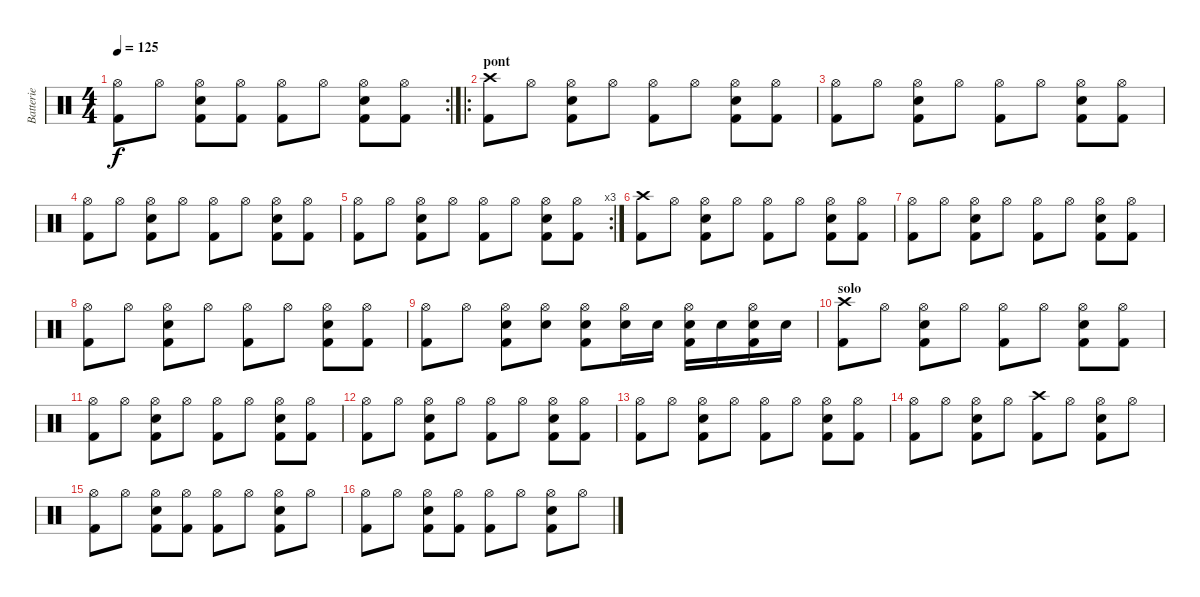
\track ("Batterie" "Batterie") {instrument percussion}
\staff {score}
\articulation defaults
\rc 2
\ts (4 4)
\tempo 125
\clef neutral
\ks c
("Hi-Hat (open)" "Kick (hit) 2").8{dy f} "Hi-Hat (open)".8 ("Hi-Hat (open)" "Kick (hit) 2" "Electric Snare (hit)").8 ("Hi-Hat (open)" "Kick (hit) 2").8 ("Hi-Hat (open)" "Kick (hit) 2").8 "Hi-Hat (open)".8 ("Hi-Hat (open)" "Kick (hit) 2" "Electric Snare (hit)").8 ("Hi-Hat (open)" "Kick (hit) 2").8 |
\ro
\section ("" "pont")
("Kick (hit) 2" "Crash high (hit)").8 "Hi-Hat (open)".8 ("Hi-Hat (open)" "Kick (hit) 2" "Electric Snare (hit)").8 "Hi-Hat (open)".8 ("Hi-Hat (open)" "Kick (hit) 2").8 "Hi-Hat (open)".8 ("Hi-Hat (open)" "Kick (hit) 2" "Electric Snare (hit)").8 ("Hi-Hat (open)" "Kick (hit) 2").8 |
("Hi-Hat (open)" "Kick (hit) 2").8 "Hi-Hat (open)".8 ("Hi-Hat (open)" "Kick (hit) 2" "Electric Snare (hit)").8 "Hi-Hat (open)".8 ("Hi-Hat (open)" "Kick (hit) 2").8 "Hi-Hat (open)".8 ("Hi-Hat (open)" "Kick (hit) 2" "Electric Snare (hit)").8 ("Hi-Hat (open)" "Kick (hit) 2").8 |
("Hi-Hat (open)" "Kick (hit) 2").8 "Hi-Hat (open)".8 ("Hi-Hat (open)" "Kick (hit) 2" "Electric Snare (hit)").8 "Hi-Hat (open)".8 ("Hi-Hat (open)" "Kick (hit) 2").8 "Hi-Hat (open)".8 ("Hi-Hat (open)" "Kick (hit) 2" "Electric Snare (hit)").8 ("Hi-Hat (open)" "Kick (hit) 2").8 |
\rc 3
("Hi-Hat (open)" "Kick (hit) 2").8 "Hi-Hat (open)".8 ("Hi-Hat (open)" "Kick (hit) 2" "Electric Snare (hit)").8 "Hi-Hat (open)".8 ("Hi-Hat (open)" "Kick (hit) 2").8 "Hi-Hat (open)".8 ("Hi-Hat (open)" "Kick (hit) 2" "Electric Snare (hit)").8 ("Hi-Hat (open)" "Kick (hit) 2").8 |
("Kick (hit) 2" "Crash high (hit)").8 "Hi-Hat (open)".8 ("Hi-Hat (open)" "Kick (hit) 2" "Electric Snare (hit)").8 "Hi-Hat (open)".8 ("Hi-Hat (open)" "Kick (hit) 2").8 "Hi-Hat (open)".8 ("Hi-Hat (open)" "Kick (hit) 2" "Electric Snare (hit)").8 ("Hi-Hat (open)" "Kick (hit) 2").8 |
("Hi-Hat (open)" "Kick (hit) 2").8 "Hi-Hat (open)".8 ("Hi-Hat (open)" "Kick (hit) 2" "Electric Snare (hit)").8 "Hi-Hat (open)".8 ("Hi-Hat (open)" "Kick (hit) 2").8 "Hi-Hat (open)".8 ("Hi-Hat (open)" "Kick (hit) 2" "Electric Snare (hit)").8 ("Hi-Hat (open)" "Kick (hit) 2").8 |
("Hi-Hat (open)" "Kick (hit) 2").8 "Hi-Hat (open)".8 ("Hi-Hat (open)" "Kick (hit) 2" "Electric Snare (hit)").8 "Hi-Hat (open)".8 ("Hi-Hat (open)" "Kick (hit) 2").8 "Hi-Hat (open)".8 ("Hi-Hat (open)" "Kick (hit) 2" "Electric Snare (hit)").8 ("Hi-Hat (open)" "Kick (hit) 2").8 |
("Hi-Hat (open)" "Kick (hit) 2").8 "Hi-Hat (open)".8 ("Hi-Hat (open)" "Kick (hit) 2" "Electric Snare (hit)").8 ("Hi-Hat (open)" "Electric Snare (hit)").8 ("Hi-Hat (open)" "Kick (hit) 2" "Electric Snare (hit)").8 ("Hi-Hat (open)" "Electric Snare (hit)").16 "Electric Snare (hit)".16 ("Hi-Hat (open)" "Kick (hit) 2" "Electric Snare (hit)").16 "Electric Snare (hit)".16 ("Hi-Hat (open)" "Kick (hit) 2" "Electric Snare (hit)").16 "Electric Snare (hit)".16 |
\section ("" "solo")
("Kick (hit) 2" "Crash high (hit)").8 "Hi-Hat (open)".8 ("Hi-Hat (open)" "Kick (hit) 2" "Electric Snare (hit)").8 "Hi-Hat (open)".8 ("Hi-Hat (open)" "Kick (hit) 2").8 "Hi-Hat (open)".8 ("Hi-Hat (open)" "Kick (hit) 2" "Electric Snare (hit)").8 ("Hi-Hat (open)" "Kick (hit) 2").8 |
("Hi-Hat (open)" "Kick (hit) 2").8 "Hi-Hat (open)".8 ("Hi-Hat (open)" "Kick (hit) 2" "Electric Snare (hit)").8 "Hi-Hat (open)".8 ("Hi-Hat (open)" "Kick (hit) 2").8 "Hi-Hat (open)".8 ("Hi-Hat (open)" "Kick (hit) 2" "Electric Snare (hit)").8 ("Hi-Hat (open)" "Kick (hit) 2").8 |
("Hi-Hat (open)" "Kick (hit) 2").8 "Hi-Hat (open)".8 ("Hi-Hat (open)" "Kick (hit) 2" "Electric Snare (hit)").8 "Hi-Hat (open)".8 ("Hi-Hat (open)" "Kick (hit) 2").8 "Hi-Hat (open)".8 ("Hi-Hat (open)" "Kick (hit) 2" "Electric Snare (hit)").8 ("Hi-Hat (open)" "Kick (hit) 2").8 |
("Hi-Hat (open)" "Kick (hit) 2").8 "Hi-Hat (open)".8 ("Hi-Hat (open)" "Kick (hit) 2" "Electric Snare (hit)").8 "Hi-Hat (open)".8 ("Hi-Hat (open)" "Kick (hit) 2").8 "Hi-Hat (open)".8 ("Hi-Hat (open)" "Kick (hit) 2" "Electric Snare (hit)").8 ("Hi-Hat (open)" "Kick (hit) 2").8 |
("Hi-Hat (open)" "Kick (hit) 2").8 "Hi-Hat (open)".8 ("Hi-Hat (open)" "Kick (hit) 2" "Electric Snare (hit)").8 "Hi-Hat (open)".8 ("Kick (hit) 2" "Crash high (hit)").8 "Hi-Hat (open)".8 ("Hi-Hat (open)" "Kick (hit) 2" "Electric Snare (hit)").8 "Hi-Hat (open)".8 |
("Hi-Hat (open)" "Kick (hit) 2").8 "Hi-Hat (open)".8 ("Hi-Hat (open)" "Kick (hit) 2" "Electric Snare (hit)").8 ("Hi-Hat (open)" "Kick (hit) 2").8 ("Hi-Hat (open)" "Kick (hit) 2").8 "Hi-Hat (open)".8 ("Hi-Hat (open)" "Kick (hit) 2" "Electric Snare (hit)").8 "Hi-Hat (open)".8 |
("Hi-Hat (open)" "Kick (hit) 2").8 "Hi-Hat (open)".8 ("Hi-Hat (open)" "Kick (hit) 2" "Electric Snare (hit)").8 ("Hi-Hat (open)" "Kick (hit) 2").8 ("Hi-Hat (open)" "Kick (hit) 2").8 "Hi-Hat (open)".8 ("Hi-Hat (open)" "Kick (hit) 2" "Electric Snare (hit)").8 "Hi-Hat (open)".8
